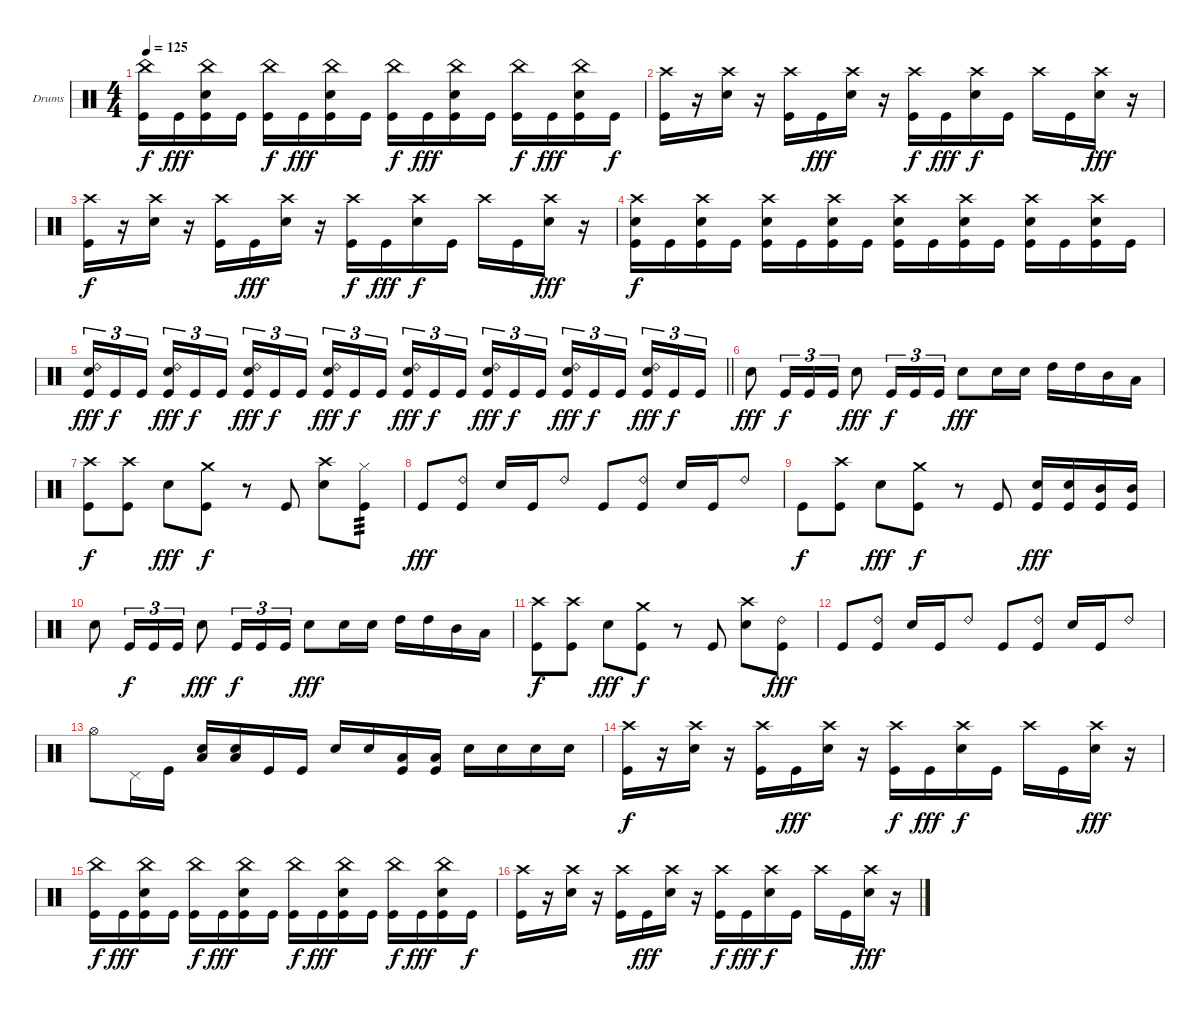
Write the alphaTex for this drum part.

\bracketExtendMode groupsimilarinstruments
\firstSystemTrackNameOrientation horizontal
\otherSystemsTrackNameOrientation horizontal
\track ("Drumkit" "Drums") {instrument percussion}
\staff {score}
\articulation defaults
\ts (4 4)
\tempo 125
\clef neutral
\ks c
("China (hit)" "Kick (hit)").16{dy f} "Kick (hit)".16{dy fff} ("China (hit)" "Snare (hit) 2" "Kick (hit)").16 "Kick (hit)".16 ("China (hit)" "Kick (hit)").16{dy f} "Kick (hit)".16{dy fff} ("China (hit)" "Snare (hit) 2" "Kick (hit)").16 "Kick (hit)".16 ("China (hit)" "Kick (hit)").16{dy f} "Kick (hit)".16{dy fff} ("China (hit)" "Snare (hit) 2" "Kick (hit)").16 "Kick (hit)".16 ("China (hit)" "Kick (hit)").16{dy f} "Kick (hit)".16{dy fff} ("China (hit)" "Snare (hit) 2" "Kick (hit)").16 "Kick (hit)".16{dy f} |
("Crash high (hit)" "Kick (hit)").16 r.16 ("Crash high (hit)" "Snare (hit) 2").16 r.16 ("Crash high (hit)" "Kick (hit)").16 "Kick (hit)".16{dy fff} ("Crash high (hit)" "Snare (hit) 2").16 r.16 ("Crash high (hit)" "Kick (hit)").16{dy f} "Kick (hit)".16{dy fff} ("Crash high (hit)" "Snare (hit) 2").16{dy f} "Kick (hit)".16 "Crash high (hit)".16 "Kick (hit)".16 ("Crash high (hit)" "Snare (hit) 2").16{dy fff} r.16 |
("Crash high (hit)" "Kick (hit)").16{dy f} r.16 ("Crash high (hit)" "Snare (hit) 2").16 r.16 ("Crash high (hit)" "Kick (hit)").16 "Kick (hit)".16{dy fff} ("Crash high (hit)" "Snare (hit) 2").16 r.16 ("Crash high (hit)" "Kick (hit)").16{dy f} "Kick (hit)".16{dy fff} ("Crash high (hit)" "Snare (hit) 2").16{dy f} "Kick (hit)".16 "Crash high (hit)".16 "Kick (hit)".16 ("Crash high (hit)" "Snare (hit) 2").16{dy fff} r.16 |
("Crash high (hit)" "Snare (hit) 2" "Kick (hit)").16{dy f} "Kick (hit)".16 ("Crash high (hit)" "Snare (hit) 2" "Kick (hit)").16 "Kick (hit)".16 ("Crash high (hit)" "Snare (hit) 2" "Kick (hit)").16 "Kick (hit)".16 ("Crash high (hit)" "Snare (hit) 2" "Kick (hit)").16 "Kick (hit)".16 ("Crash high (hit)" "Snare (hit) 2" "Kick (hit)").16 "Kick (hit)".16 ("Crash high (hit)" "Snare (hit) 2" "Kick (hit)").16 "Kick (hit)".16 ("Crash high (hit)" "Snare (hit) 2" "Kick (hit)").16 "Kick (hit)".16 ("Crash high (hit)" "Snare (hit) 2" "Kick (hit)").16 "Kick (hit)".16 |
\barLineRight lightlight
("Ride (bell) 2" "Snare (hit) 2" "Kick (hit)").16{tu (3 2) dy fff} "Kick (hit)".16{tu (3 2) dy f} "Kick (hit)".16{tu (3 2)} ("Ride (bell) 2" "Snare (hit) 2" "Kick (hit)").16{tu (3 2) dy fff} "Kick (hit)".16{tu (3 2) dy f} "Kick (hit)".16{tu (3 2)} ("Ride (bell) 2" "Snare (hit) 2" "Kick (hit)").16{tu (3 2) dy fff} "Kick (hit)".16{tu (3 2) dy f} "Kick (hit)".16{tu (3 2)} ("Ride (bell) 2" "Snare (hit) 2" "Kick (hit)").16{tu (3 2) dy fff} "Kick (hit)".16{tu (3 2) dy f} "Kick (hit)".16{tu (3 2)} ("Ride (bell) 2" "Snare (hit) 2" "Kick (hit)").16{tu (3 2) dy fff} "Kick (hit)".16{tu (3 2) dy f} "Kick (hit)".16{tu (3 2)} ("Ride (bell) 2" "Snare (hit) 2" "Kick (hit)").16{tu (3 2) dy fff} "Kick (hit)".16{tu (3 2) dy f} "Kick (hit)".16{tu (3 2)} ("Ride (bell) 2" "Snare (hit) 2" "Kick (hit)").16{tu (3 2) dy fff} "Kick (hit)".16{tu (3 2) dy f} "Kick (hit)".16{tu (3 2)} ("Ride (bell) 2" "Snare (hit) 2" "Kick (hit)").16{tu (3 2) dy fff} "Kick (hit)".16{tu (3 2) dy f} "Kick (hit)".16{tu (3 2)} |
"Snare (hit) 2".8{dy fff} "Kick (hit)".16{tu (3 2) dy f} "Kick (hit)".16{tu (3 2)} "Kick (hit)".16{tu (3 2)} "Snare (hit) 2".8{dy fff} "Kick (hit)".16{tu (3 2) dy f} "Kick (hit)".16{tu (3 2)} "Kick (hit)".16{tu (3 2)} "Snare (hit) 2".8{dy fff} "Snare (hit) 2".16 "Snare (hit) 2".16 "High Tom (hit)".16 "High Tom (hit)".16 "Mid Tom (hit)".16 "Low Tom (hit)".16 |
("Crash high (hit)" "Kick (hit)").8{dy f} ("Crash high (hit)" "Kick (hit)").8 "Snare (hit) 2".8{dy fff} ("Crash medium (hit)" "Kick (hit)").8{dy f} r.8 "Kick (hit)".8 ("Crash high (hit)" "Snare (hit) 2").8 ("Hi-Hat (closed)" "Kick (hit)").8{tp 3} |
"Kick (hit)".8{dy fff} ("Ride (bell) 2" "Kick (hit)").8 "Snare (hit) 2".16 "Kick (hit)".16 "Ride (bell) 2".8 "Kick (hit)".8 ("Ride (bell) 2" "Kick (hit)").8 "Snare (hit) 2".16 "Kick (hit)".16 "Ride (bell) 2".8 |
"Kick (hit)".8{dy f} ("Crash high (hit)" "Kick (hit)").8 "Snare (hit) 2".8{dy fff} ("Crash medium (hit)" "Kick (hit)").8{dy f} r.8 "Kick (hit)".8 ("Snare (hit) 2" "Kick (hit)").16{dy fff} ("Snare (hit) 2" "Kick (hit)").16 ("Mid Tom (hit)" "Kick (hit)").16 ("Mid Tom (hit)" "Kick (hit)").16 |
"Snare (hit) 2".8 "Kick (hit)".16{tu (3 2) dy f} "Kick (hit)".16{tu (3 2)} "Kick (hit)".16{tu (3 2)} "Snare (hit) 2".8{dy fff} "Kick (hit)".16{tu (3 2) dy f} "Kick (hit)".16{tu (3 2)} "Kick (hit)".16{tu (3 2)} "Snare (hit) 2".8{dy fff} "Snare (hit) 2".16 "Snare (hit) 2".16 "High Tom (hit)".16 "High Tom (hit)".16 "Mid Tom (hit)".16 "Low Tom (hit)".16 |
("Crash high (hit)" "Kick (hit)").8{dy f} ("Crash high (hit)" "Kick (hit)").8 "Snare (hit) 2".8{dy fff} ("Crash medium (hit)" "Kick (hit)").8{dy f} r.8 "Kick (hit)".8 ("Crash high (hit)" "Snare (hit) 2").8 ("Ride (bell) 2" "Kick (hit)").8{dy fff} |
"Kick (hit)".8 ("Ride (bell) 2" "Kick (hit)").8 "Snare (hit) 2".16 "Kick (hit)".16 "Ride (bell) 2".8 "Kick (hit)".8 ("Ride (bell) 2" "Kick (hit)").8 "Snare (hit) 2".16 "Kick (hit)".16 "Ride (bell) 2".8 |
"Hi-Hat (open)".8 "Pedal Hi-Hat (hit)".16 "Kick (hit)".16 ("Low Tom (hit)" "Snare (hit) 2").16 ("Low Tom (hit)" "Snare (hit) 2").16 "Kick (hit)".16 "Kick (hit)".16 "Snare (hit) 2".16 "Snare (hit) 2".16 ("Low Tom (hit)" "Kick (hit)").16 ("Low Tom (hit)" "Kick (hit)").16 "Snare (hit) 2".16 "Snare (hit) 2".16 "Snare (hit) 2".16 "Snare (hit) 2".16 |
("Crash high (hit)" "Kick (hit)").16{dy f} r.16 ("Crash high (hit)" "Snare (hit) 2").16 r.16 ("Crash high (hit)" "Kick (hit)").16 "Kick (hit)".16{dy fff} ("Crash high (hit)" "Snare (hit) 2").16 r.16 ("Crash high (hit)" "Kick (hit)").16{dy f} "Kick (hit)".16{dy fff} ("Crash high (hit)" "Snare (hit) 2").16{dy f} "Kick (hit)".16 "Crash high (hit)".16 "Kick (hit)".16 ("Crash high (hit)" "Snare (hit) 2").16{dy fff} r.16 |
("China (hit)" "Kick (hit)").16{dy f} "Kick (hit)".16{dy fff} ("China (hit)" "Snare (hit) 2" "Kick (hit)").16 "Kick (hit)".16 ("China (hit)" "Kick (hit)").16{dy f} "Kick (hit)".16{dy fff} ("China (hit)" "Snare (hit) 2" "Kick (hit)").16 "Kick (hit)".16 ("China (hit)" "Kick (hit)").16{dy f} "Kick (hit)".16{dy fff} ("China (hit)" "Snare (hit) 2" "Kick (hit)").16 "Kick (hit)".16 ("China (hit)" "Kick (hit)").16{dy f} "Kick (hit)".16{dy fff} ("China (hit)" "Snare (hit) 2" "Kick (hit)").16 "Kick (hit)".16{dy f} |
("Crash high (hit)" "Kick (hit)").16 r.16 ("Crash high (hit)" "Snare (hit) 2").16 r.16 ("Crash high (hit)" "Kick (hit)").16 "Kick (hit)".16{dy fff} ("Crash high (hit)" "Snare (hit) 2").16 r.16 ("Crash high (hit)" "Kick (hit)").16{dy f} "Kick (hit)".16{dy fff} ("Crash high (hit)" "Snare (hit) 2").16{dy f} "Kick (hit)".16 "Crash high (hit)".16 "Kick (hit)".16 ("Crash high (hit)" "Snare (hit) 2").16{dy fff} r.16
